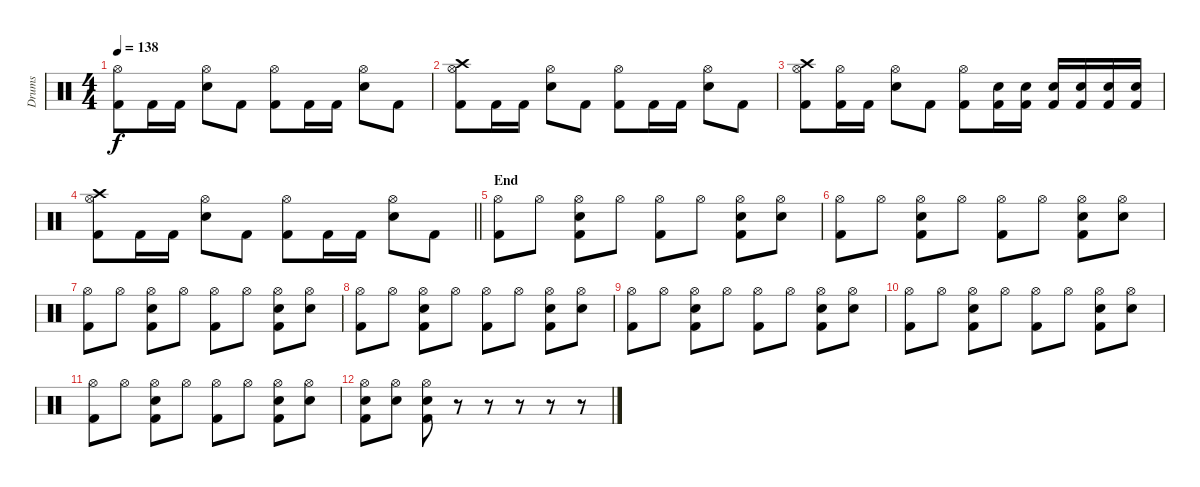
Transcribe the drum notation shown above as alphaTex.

\track ("Drums" "Drums") {instrument percussion}
\staff {score}
\articulation defaults
\ts (4 4)
\tempo 138
\clef neutral
\ks c
("Hi-Hat (open)" "Kick (hit) 2").8{dy f} "Kick (hit) 2".16 "Kick (hit) 2".16 ("Hi-Hat (open)" "Electric Snare (hit)").8 "Kick (hit) 2".8 ("Hi-Hat (open)" "Kick (hit) 2").8 "Kick (hit) 2".16 "Kick (hit) 2".16 ("Hi-Hat (open)" "Electric Snare (hit)").8 "Kick (hit) 2".8 |
("Crash high (hit)" "Hi-Hat (open)" "Kick (hit) 2").8 "Kick (hit) 2".16 "Kick (hit) 2".16 ("Hi-Hat (open)" "Electric Snare (hit)").8 "Kick (hit) 2".8 ("Hi-Hat (open)" "Kick (hit) 2").8 "Kick (hit) 2".16 "Kick (hit) 2".16 ("Hi-Hat (open)" "Electric Snare (hit)").8 "Kick (hit) 2".8 |
("Crash high (hit)" "Hi-Hat (open)" "Kick (hit) 2").8 ("Hi-Hat (open)" "Kick (hit) 2").16 "Kick (hit) 2".16 ("Hi-Hat (open)" "Electric Snare (hit)").8 "Kick (hit) 2".8 ("Hi-Hat (open)" "Kick (hit) 2").8 ("Electric Snare (hit)" "Kick (hit) 2").16 ("Electric Snare (hit)" "Kick (hit) 2").16 ("Electric Snare (hit)" "Kick (hit) 2").16 ("Electric Snare (hit)" "Kick (hit) 2").16 ("Electric Snare (hit)" "Kick (hit) 2").16 ("Electric Snare (hit)" "Kick (hit) 2").16 |
\barLineRight lightlight
("Crash high (hit)" "Hi-Hat (open)" "Kick (hit) 2").8 "Kick (hit) 2".16 "Kick (hit) 2".16 ("Hi-Hat (open)" "Electric Snare (hit)").8 "Kick (hit) 2".8 ("Hi-Hat (open)" "Kick (hit) 2").8 "Kick (hit) 2".16 "Kick (hit) 2".16 ("Hi-Hat (open)" "Electric Snare (hit)").8 "Kick (hit) 2".8 |
\section ("" "End")
("Hi-Hat (open)" "Kick (hit) 2").8 "Hi-Hat (open)".8 ("Electric Snare (hit)" "Hi-Hat (open)" "Kick (hit) 2").8 "Hi-Hat (open)".8 ("Hi-Hat (open)" "Kick (hit) 2").8 "Hi-Hat (open)".8 ("Electric Snare (hit)" "Hi-Hat (open)" "Kick (hit) 2").8 ("Electric Snare (hit)" "Hi-Hat (open)").8 |
("Hi-Hat (open)" "Kick (hit) 2").8 "Hi-Hat (open)".8 ("Electric Snare (hit)" "Hi-Hat (open)" "Kick (hit) 2").8 "Hi-Hat (open)".8 ("Hi-Hat (open)" "Kick (hit) 2").8 "Hi-Hat (open)".8 ("Electric Snare (hit)" "Hi-Hat (open)" "Kick (hit) 2").8 ("Electric Snare (hit)" "Hi-Hat (open)").8 |
("Hi-Hat (open)" "Kick (hit) 2").8 "Hi-Hat (open)".8 ("Electric Snare (hit)" "Hi-Hat (open)" "Kick (hit) 2").8 "Hi-Hat (open)".8 ("Hi-Hat (open)" "Kick (hit) 2").8 "Hi-Hat (open)".8 ("Electric Snare (hit)" "Hi-Hat (open)" "Kick (hit) 2").8 ("Electric Snare (hit)" "Hi-Hat (open)").8 |
("Hi-Hat (open)" "Kick (hit) 2").8 "Hi-Hat (open)".8 ("Electric Snare (hit)" "Hi-Hat (open)" "Kick (hit) 2").8 "Hi-Hat (open)".8 ("Hi-Hat (open)" "Kick (hit) 2").8 "Hi-Hat (open)".8 ("Electric Snare (hit)" "Hi-Hat (open)" "Kick (hit) 2").8 ("Electric Snare (hit)" "Hi-Hat (open)").8 |
("Hi-Hat (open)" "Kick (hit) 2").8 "Hi-Hat (open)".8 ("Electric Snare (hit)" "Hi-Hat (open)" "Kick (hit) 2").8 "Hi-Hat (open)".8 ("Hi-Hat (open)" "Kick (hit) 2").8 "Hi-Hat (open)".8 ("Electric Snare (hit)" "Hi-Hat (open)" "Kick (hit) 2").8 ("Electric Snare (hit)" "Hi-Hat (open)").8 |
("Hi-Hat (open)" "Kick (hit) 2").8 "Hi-Hat (open)".8 ("Electric Snare (hit)" "Hi-Hat (open)" "Kick (hit) 2").8 "Hi-Hat (open)".8 ("Hi-Hat (open)" "Kick (hit) 2").8 "Hi-Hat (open)".8 ("Electric Snare (hit)" "Hi-Hat (open)" "Kick (hit) 2").8 ("Electric Snare (hit)" "Hi-Hat (open)").8 |
("Hi-Hat (open)" "Kick (hit) 2").8 "Hi-Hat (open)".8 ("Electric Snare (hit)" "Hi-Hat (open)" "Kick (hit) 2").8 "Hi-Hat (open)".8 ("Hi-Hat (open)" "Kick (hit) 2").8 "Hi-Hat (open)".8 ("Electric Snare (hit)" "Hi-Hat (open)" "Kick (hit) 2").8 ("Electric Snare (hit)" "Hi-Hat (open)").8 |
("Electric Snare (hit)" "Hi-Hat (open)" "Kick (hit) 2").8 ("Electric Snare (hit)" "Hi-Hat (open)").8 ("Electric Snare (hit)" "Hi-Hat (open)" "Kick (hit) 2").8 r.8 r.8 r.8 r.8 r.8
